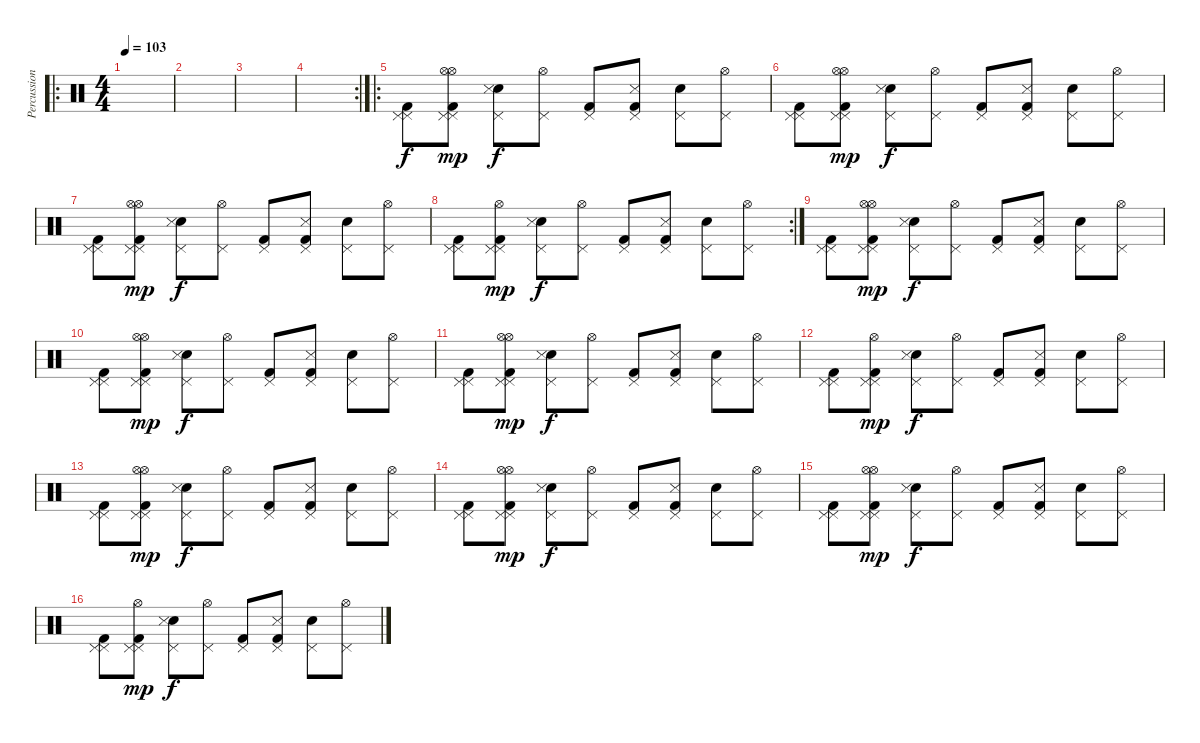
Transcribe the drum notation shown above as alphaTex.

\track ("Percussion" "Percussion") {instrument percussion}
\staff {score}
\articulation defaults
\ro
\ts (4 4)
\tempo 103
\clef neutral
\ks c
|
|
|
\rc 2
|
\ro
("Pedal Hi-Hat (hit)" "Pedal Hi-Hat (hit)" "Kick (hit) 2").8 ("Hi-Hat (open)" "Pedal Hi-Hat (hit)" "Hi-Hat (open)" "Pedal Hi-Hat (hit)" "Kick (hit) 2").8{dy mp} ("Pedal Hi-Hat (hit)" "Electric Snare (hit)" "Metronome (hit)").8{dy f} ("Pedal Hi-Hat (hit)" "Hi-Hat (open)").8 ("Pedal Hi-Hat (hit)" "Kick (hit) 2").8 ("Pedal Hi-Hat (hit)" "Kick (hit) 2" "Metronome (hit)").8 ("Pedal Hi-Hat (hit)" "Electric Snare (hit)").8 ("Pedal Hi-Hat (hit)" "Hi-Hat (open)").8 |
("Pedal Hi-Hat (hit)" "Pedal Hi-Hat (hit)" "Kick (hit) 2").8 ("Hi-Hat (open)" "Pedal Hi-Hat (hit)" "Hi-Hat (open)" "Pedal Hi-Hat (hit)" "Kick (hit) 2").8{dy mp} ("Pedal Hi-Hat (hit)" "Electric Snare (hit)" "Metronome (hit)").8{dy f} ("Pedal Hi-Hat (hit)" "Hi-Hat (open)").8 ("Pedal Hi-Hat (hit)" "Kick (hit) 2").8 ("Pedal Hi-Hat (hit)" "Kick (hit) 2" "Metronome (hit)").8 ("Pedal Hi-Hat (hit)" "Electric Snare (hit)").8 ("Pedal Hi-Hat (hit)" "Hi-Hat (open)").8 |
("Pedal Hi-Hat (hit)" "Pedal Hi-Hat (hit)" "Kick (hit) 2").8 ("Hi-Hat (open)" "Pedal Hi-Hat (hit)" "Hi-Hat (open)" "Pedal Hi-Hat (hit)" "Kick (hit) 2").8{dy mp} ("Pedal Hi-Hat (hit)" "Electric Snare (hit)" "Metronome (hit)").8{dy f} ("Pedal Hi-Hat (hit)" "Hi-Hat (open)").8 ("Pedal Hi-Hat (hit)" "Kick (hit) 2").8 ("Pedal Hi-Hat (hit)" "Kick (hit) 2" "Metronome (hit)").8 ("Pedal Hi-Hat (hit)" "Electric Snare (hit)").8 ("Pedal Hi-Hat (hit)" "Hi-Hat (open)").8 |
\rc 2
("Pedal Hi-Hat (hit)" "Pedal Hi-Hat (hit)" "Kick (hit) 2").8 ("Pedal Hi-Hat (hit)" "Hi-Hat (open)" "Pedal Hi-Hat (hit)" "Kick (hit) 2").8{dy mp} ("Pedal Hi-Hat (hit)" "Electric Snare (hit)" "Metronome (hit)").8{dy f} ("Pedal Hi-Hat (hit)" "Hi-Hat (open)").8 ("Pedal Hi-Hat (hit)" "Kick (hit) 2").8 ("Pedal Hi-Hat (hit)" "Kick (hit) 2" "Metronome (hit)").8 ("Pedal Hi-Hat (hit)" "Electric Snare (hit)").8 ("Pedal Hi-Hat (hit)" "Hi-Hat (open)").8 |
("Pedal Hi-Hat (hit)" "Pedal Hi-Hat (hit)" "Kick (hit) 2").8 ("Hi-Hat (open)" "Pedal Hi-Hat (hit)" "Hi-Hat (open)" "Pedal Hi-Hat (hit)" "Kick (hit) 2").8{dy mp} ("Pedal Hi-Hat (hit)" "Electric Snare (hit)" "Metronome (hit)").8{dy f} ("Pedal Hi-Hat (hit)" "Hi-Hat (open)").8 ("Pedal Hi-Hat (hit)" "Kick (hit) 2").8 ("Pedal Hi-Hat (hit)" "Kick (hit) 2" "Metronome (hit)").8 ("Pedal Hi-Hat (hit)" "Electric Snare (hit)").8 ("Pedal Hi-Hat (hit)" "Hi-Hat (open)").8 |
("Pedal Hi-Hat (hit)" "Pedal Hi-Hat (hit)" "Kick (hit) 2").8 ("Hi-Hat (open)" "Pedal Hi-Hat (hit)" "Hi-Hat (open)" "Pedal Hi-Hat (hit)" "Kick (hit) 2").8{dy mp} ("Pedal Hi-Hat (hit)" "Electric Snare (hit)" "Metronome (hit)").8{dy f} ("Pedal Hi-Hat (hit)" "Hi-Hat (open)").8 ("Pedal Hi-Hat (hit)" "Kick (hit) 2").8 ("Pedal Hi-Hat (hit)" "Kick (hit) 2" "Metronome (hit)").8 ("Pedal Hi-Hat (hit)" "Electric Snare (hit)").8 ("Pedal Hi-Hat (hit)" "Hi-Hat (open)").8 |
("Pedal Hi-Hat (hit)" "Pedal Hi-Hat (hit)" "Kick (hit) 2").8 ("Hi-Hat (open)" "Pedal Hi-Hat (hit)" "Hi-Hat (open)" "Pedal Hi-Hat (hit)" "Kick (hit) 2").8{dy mp} ("Pedal Hi-Hat (hit)" "Electric Snare (hit)" "Metronome (hit)").8{dy f} ("Pedal Hi-Hat (hit)" "Hi-Hat (open)").8 ("Pedal Hi-Hat (hit)" "Kick (hit) 2").8 ("Pedal Hi-Hat (hit)" "Kick (hit) 2" "Metronome (hit)").8 ("Pedal Hi-Hat (hit)" "Electric Snare (hit)").8 ("Pedal Hi-Hat (hit)" "Hi-Hat (open)").8 |
("Pedal Hi-Hat (hit)" "Pedal Hi-Hat (hit)" "Kick (hit) 2").8 ("Pedal Hi-Hat (hit)" "Hi-Hat (open)" "Pedal Hi-Hat (hit)" "Kick (hit) 2").8{dy mp} ("Pedal Hi-Hat (hit)" "Electric Snare (hit)" "Metronome (hit)").8{dy f} ("Pedal Hi-Hat (hit)" "Hi-Hat (open)").8 ("Pedal Hi-Hat (hit)" "Kick (hit) 2").8 ("Pedal Hi-Hat (hit)" "Kick (hit) 2" "Metronome (hit)").8 ("Pedal Hi-Hat (hit)" "Electric Snare (hit)").8 ("Pedal Hi-Hat (hit)" "Hi-Hat (open)").8 |
("Pedal Hi-Hat (hit)" "Pedal Hi-Hat (hit)" "Kick (hit) 2").8 ("Hi-Hat (open)" "Pedal Hi-Hat (hit)" "Hi-Hat (open)" "Pedal Hi-Hat (hit)" "Kick (hit) 2").8{dy mp} ("Pedal Hi-Hat (hit)" "Electric Snare (hit)" "Metronome (hit)").8{dy f} ("Pedal Hi-Hat (hit)" "Hi-Hat (open)").8 ("Pedal Hi-Hat (hit)" "Kick (hit) 2").8 ("Pedal Hi-Hat (hit)" "Kick (hit) 2" "Metronome (hit)").8 ("Pedal Hi-Hat (hit)" "Electric Snare (hit)").8 ("Pedal Hi-Hat (hit)" "Hi-Hat (open)").8 |
("Pedal Hi-Hat (hit)" "Pedal Hi-Hat (hit)" "Kick (hit) 2").8 ("Hi-Hat (open)" "Pedal Hi-Hat (hit)" "Hi-Hat (open)" "Pedal Hi-Hat (hit)" "Kick (hit) 2").8{dy mp} ("Pedal Hi-Hat (hit)" "Electric Snare (hit)" "Metronome (hit)").8{dy f} ("Pedal Hi-Hat (hit)" "Hi-Hat (open)").8 ("Pedal Hi-Hat (hit)" "Kick (hit) 2").8 ("Pedal Hi-Hat (hit)" "Kick (hit) 2" "Metronome (hit)").8 ("Pedal Hi-Hat (hit)" "Electric Snare (hit)").8 ("Pedal Hi-Hat (hit)" "Hi-Hat (open)").8 |
("Pedal Hi-Hat (hit)" "Pedal Hi-Hat (hit)" "Kick (hit) 2").8 ("Hi-Hat (open)" "Pedal Hi-Hat (hit)" "Hi-Hat (open)" "Pedal Hi-Hat (hit)" "Kick (hit) 2").8{dy mp} ("Pedal Hi-Hat (hit)" "Electric Snare (hit)" "Metronome (hit)").8{dy f} ("Pedal Hi-Hat (hit)" "Hi-Hat (open)").8 ("Pedal Hi-Hat (hit)" "Kick (hit) 2").8 ("Pedal Hi-Hat (hit)" "Kick (hit) 2" "Metronome (hit)").8 ("Pedal Hi-Hat (hit)" "Electric Snare (hit)").8 ("Pedal Hi-Hat (hit)" "Hi-Hat (open)").8 |
("Pedal Hi-Hat (hit)" "Pedal Hi-Hat (hit)" "Kick (hit) 2").8 ("Pedal Hi-Hat (hit)" "Hi-Hat (open)" "Pedal Hi-Hat (hit)" "Kick (hit) 2").8{dy mp} ("Pedal Hi-Hat (hit)" "Electric Snare (hit)" "Metronome (hit)").8{dy f} ("Pedal Hi-Hat (hit)" "Hi-Hat (open)").8 ("Pedal Hi-Hat (hit)" "Kick (hit) 2").8 ("Pedal Hi-Hat (hit)" "Kick (hit) 2" "Metronome (hit)").8 ("Pedal Hi-Hat (hit)" "Electric Snare (hit)").8 ("Pedal Hi-Hat (hit)" "Hi-Hat (open)").8
